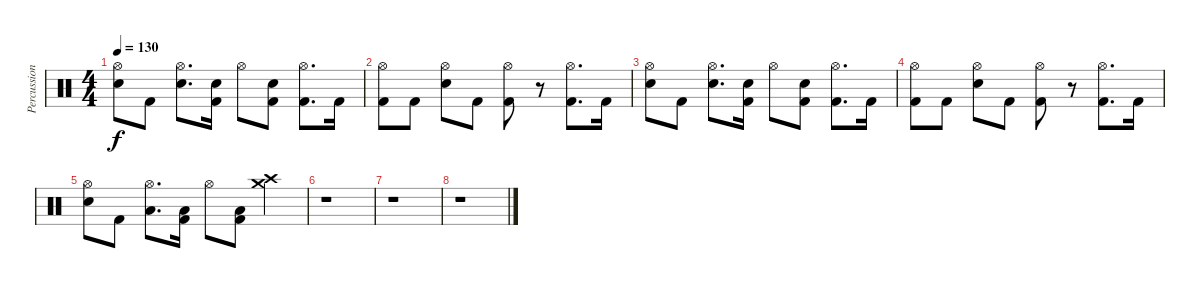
\track ("Percussion" "Percussion") {instrument percussion}
\staff {score}
\articulation defaults
\ts (4 4)
\tempo 130
\clef neutral
\ks c
("Hi-Hat (open)" "Snare (hit) 2").8{dy f} "Kick (hit) 2".8 ("Hi-Hat (open)" "Snare (hit) 2").8{d} ("Snare (hit) 2" "Kick (hit) 2").16 "Hi-Hat (open)".8 ("Snare (hit) 2" "Kick (hit) 2").8 ("Hi-Hat (open)" "Kick (hit) 2").8{d} "Kick (hit) 2".16 |
("Hi-Hat (open)" "Kick (hit) 2").8 "Kick (hit) 2".8 ("Hi-Hat (open)" "Snare (hit) 2").8 "Kick (hit) 2".8 ("Hi-Hat (open)" "Kick (hit) 2").8 r.8 ("Hi-Hat (open)" "Kick (hit) 2").8{d} "Kick (hit) 2".16 |
("Hi-Hat (open)" "Snare (hit) 2").8 "Kick (hit) 2".8 ("Hi-Hat (open)" "Snare (hit) 2").8{d} ("Snare (hit) 2" "Kick (hit) 2").16 "Hi-Hat (open)".8 ("Snare (hit) 2" "Kick (hit) 2").8 ("Hi-Hat (open)" "Kick (hit) 2").8{d} "Kick (hit) 2".16 |
("Hi-Hat (open)" "Kick (hit) 2").8 "Kick (hit) 2".8 ("Hi-Hat (open)" "Snare (hit) 2").8 "Kick (hit) 2".8 ("Hi-Hat (open)" "Kick (hit) 2").8 r.8 ("Hi-Hat (open)" "Kick (hit) 2").8{d} "Kick (hit) 2".16 |
("Hi-Hat (open)" "Snare (hit) 2").8 "Kick (hit) 2".8 ("Hi-Hat (open)" "Low Floor Tom (hit)").8{d} ("Low Floor Tom (hit)" "Kick (hit) 2").16 "Hi-Hat (open)".8 ("Low Floor Tom (hit)" "Kick (hit) 2").8 ("Crash medium (hit)" "Crash high (hit)").4 |
r.1 |
r.1 |
r.1
